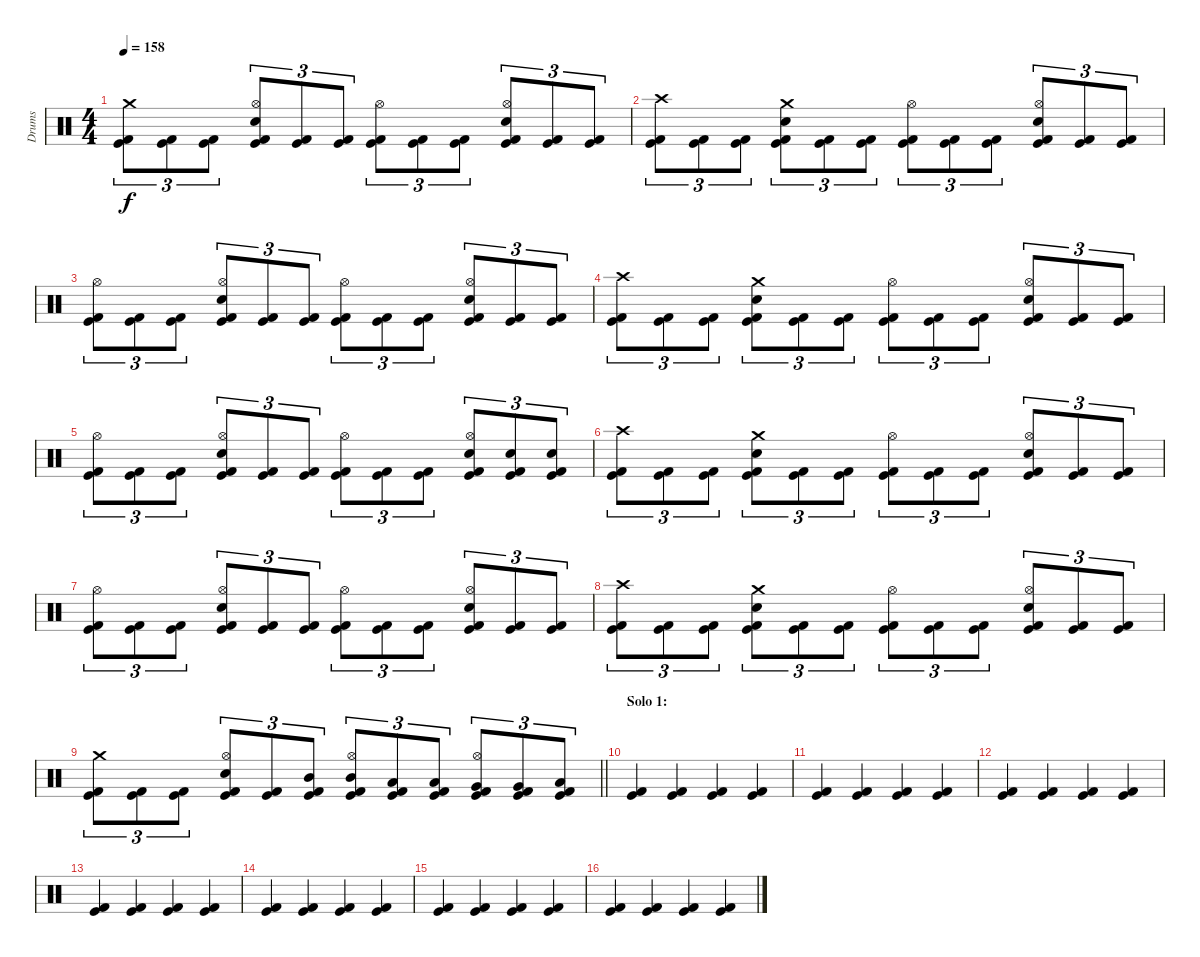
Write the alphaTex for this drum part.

\track ("Drums" "Drums") {instrument percussion}
\staff {score}
\articulation defaults
\ts (4 4)
\tempo 158
\clef neutral
\ks c
("Crash medium (hit)" "Kick (hit)" "Kick (hit) 2").8{tu (3 2) dy f} ("Kick (hit)" "Kick (hit) 2").8{tu (3 2)} ("Kick (hit)" "Kick (hit) 2").8{tu (3 2)} ("Hi-Hat (open)" "Snare (hit) 2" "Kick (hit)" "Kick (hit) 2").8{tu (3 2)} ("Kick (hit)" "Kick (hit) 2").8{tu (3 2)} ("Kick (hit)" "Kick (hit) 2").8{tu (3 2)} ("Hi-Hat (open)" "Kick (hit)" "Kick (hit) 2").8{tu (3 2)} ("Kick (hit)" "Kick (hit) 2").8{tu (3 2)} ("Kick (hit)" "Kick (hit) 2").8{tu (3 2)} ("Hi-Hat (open)" "Snare (hit) 2" "Kick (hit)" "Kick (hit) 2").8{tu (3 2)} ("Kick (hit)" "Kick (hit) 2").8{tu (3 2)} ("Kick (hit)" "Kick (hit) 2").8{tu (3 2)} |
("Crash high (hit)" "Kick (hit)" "Kick (hit) 2").8{tu (3 2)} ("Kick (hit)" "Kick (hit) 2").8{tu (3 2)} ("Kick (hit)" "Kick (hit) 2").8{tu (3 2)} ("Crash medium (hit)" "Snare (hit) 2" "Kick (hit)" "Kick (hit) 2").8{tu (3 2)} ("Kick (hit)" "Kick (hit) 2").8{tu (3 2)} ("Kick (hit)" "Kick (hit) 2").8{tu (3 2)} ("Hi-Hat (open)" "Kick (hit)" "Kick (hit) 2").8{tu (3 2)} ("Kick (hit)" "Kick (hit) 2").8{tu (3 2)} ("Kick (hit)" "Kick (hit) 2").8{tu (3 2)} ("Hi-Hat (open)" "Snare (hit) 2" "Kick (hit)" "Kick (hit) 2").8{tu (3 2)} ("Kick (hit)" "Kick (hit) 2").8{tu (3 2)} ("Kick (hit)" "Kick (hit) 2").8{tu (3 2)} |
("Hi-Hat (open)" "Kick (hit)" "Kick (hit) 2").8{tu (3 2)} ("Kick (hit)" "Kick (hit) 2").8{tu (3 2)} ("Kick (hit)" "Kick (hit) 2").8{tu (3 2)} ("Hi-Hat (open)" "Snare (hit) 2" "Kick (hit)" "Kick (hit) 2").8{tu (3 2)} ("Kick (hit)" "Kick (hit) 2").8{tu (3 2)} ("Kick (hit)" "Kick (hit) 2").8{tu (3 2)} ("Hi-Hat (open)" "Kick (hit)" "Kick (hit) 2").8{tu (3 2)} ("Kick (hit)" "Kick (hit) 2").8{tu (3 2)} ("Kick (hit)" "Kick (hit) 2").8{tu (3 2)} ("Hi-Hat (open)" "Snare (hit) 2" "Kick (hit)" "Kick (hit) 2").8{tu (3 2)} ("Kick (hit)" "Kick (hit) 2").8{tu (3 2)} ("Kick (hit)" "Kick (hit) 2").8{tu (3 2)} |
("Crash high (hit)" "Kick (hit)" "Kick (hit) 2").8{tu (3 2)} ("Kick (hit)" "Kick (hit) 2").8{tu (3 2)} ("Kick (hit)" "Kick (hit) 2").8{tu (3 2)} ("Crash medium (hit)" "Snare (hit) 2" "Kick (hit)" "Kick (hit) 2").8{tu (3 2)} ("Kick (hit)" "Kick (hit) 2").8{tu (3 2)} ("Kick (hit)" "Kick (hit) 2").8{tu (3 2)} ("Hi-Hat (open)" "Kick (hit)" "Kick (hit) 2").8{tu (3 2)} ("Kick (hit)" "Kick (hit) 2").8{tu (3 2)} ("Kick (hit)" "Kick (hit) 2").8{tu (3 2)} ("Hi-Hat (open)" "Snare (hit) 2" "Kick (hit)" "Kick (hit) 2").8{tu (3 2)} ("Kick (hit)" "Kick (hit) 2").8{tu (3 2)} ("Kick (hit)" "Kick (hit) 2").8{tu (3 2)} |
("Hi-Hat (open)" "Kick (hit)" "Kick (hit) 2").8{tu (3 2)} ("Kick (hit)" "Kick (hit) 2").8{tu (3 2)} ("Kick (hit)" "Kick (hit) 2").8{tu (3 2)} ("Hi-Hat (open)" "Snare (hit) 2" "Kick (hit)" "Kick (hit) 2").8{tu (3 2)} ("Kick (hit)" "Kick (hit) 2").8{tu (3 2)} ("Kick (hit)" "Kick (hit) 2").8{tu (3 2)} ("Hi-Hat (open)" "Kick (hit)" "Kick (hit) 2").8{tu (3 2)} ("Kick (hit)" "Kick (hit) 2").8{tu (3 2)} ("Kick (hit)" "Kick (hit) 2").8{tu (3 2)} ("Hi-Hat (open)" "Snare (hit) 2" "Kick (hit)" "Kick (hit) 2").8{tu (3 2)} ("Snare (hit) 2" "Kick (hit)" "Kick (hit) 2").8{tu (3 2)} ("Snare (hit) 2" "Kick (hit)" "Kick (hit) 2").8{tu (3 2)} |
("Crash high (hit)" "Kick (hit)" "Kick (hit) 2").8{tu (3 2)} ("Kick (hit)" "Kick (hit) 2").8{tu (3 2)} ("Kick (hit)" "Kick (hit) 2").8{tu (3 2)} ("Crash medium (hit)" "Snare (hit) 2" "Kick (hit)" "Kick (hit) 2").8{tu (3 2)} ("Kick (hit)" "Kick (hit) 2").8{tu (3 2)} ("Kick (hit)" "Kick (hit) 2").8{tu (3 2)} ("Hi-Hat (open)" "Kick (hit)" "Kick (hit) 2").8{tu (3 2)} ("Kick (hit)" "Kick (hit) 2").8{tu (3 2)} ("Kick (hit)" "Kick (hit) 2").8{tu (3 2)} ("Hi-Hat (open)" "Snare (hit) 2" "Kick (hit)" "Kick (hit) 2").8{tu (3 2)} ("Kick (hit)" "Kick (hit) 2").8{tu (3 2)} ("Kick (hit)" "Kick (hit) 2").8{tu (3 2)} |
("Hi-Hat (open)" "Kick (hit)" "Kick (hit) 2").8{tu (3 2)} ("Kick (hit)" "Kick (hit) 2").8{tu (3 2)} ("Kick (hit)" "Kick (hit) 2").8{tu (3 2)} ("Hi-Hat (open)" "Snare (hit) 2" "Kick (hit)" "Kick (hit) 2").8{tu (3 2)} ("Kick (hit)" "Kick (hit) 2").8{tu (3 2)} ("Kick (hit)" "Kick (hit) 2").8{tu (3 2)} ("Hi-Hat (open)" "Kick (hit)" "Kick (hit) 2").8{tu (3 2)} ("Kick (hit)" "Kick (hit) 2").8{tu (3 2)} ("Kick (hit)" "Kick (hit) 2").8{tu (3 2)} ("Hi-Hat (open)" "Snare (hit) 2" "Kick (hit)" "Kick (hit) 2").8{tu (3 2)} ("Kick (hit)" "Kick (hit) 2").8{tu (3 2)} ("Kick (hit)" "Kick (hit) 2").8{tu (3 2)} |
("Crash high (hit)" "Kick (hit)" "Kick (hit) 2").8{tu (3 2)} ("Kick (hit)" "Kick (hit) 2").8{tu (3 2)} ("Kick (hit)" "Kick (hit) 2").8{tu (3 2)} ("Crash medium (hit)" "Snare (hit) 2" "Kick (hit)" "Kick (hit) 2").8{tu (3 2)} ("Kick (hit)" "Kick (hit) 2").8{tu (3 2)} ("Kick (hit)" "Kick (hit) 2").8{tu (3 2)} ("Hi-Hat (open)" "Kick (hit)" "Kick (hit) 2").8{tu (3 2)} ("Kick (hit)" "Kick (hit) 2").8{tu (3 2)} ("Kick (hit)" "Kick (hit) 2").8{tu (3 2)} ("Hi-Hat (open)" "Snare (hit) 2" "Kick (hit)" "Kick (hit) 2").8{tu (3 2)} ("Kick (hit)" "Kick (hit) 2").8{tu (3 2)} ("Kick (hit)" "Kick (hit) 2").8{tu (3 2)} |
\barLineRight lightlight
("Crash medium (hit)" "Kick (hit)" "Kick (hit) 2").8{tu (3 2)} ("Kick (hit)" "Kick (hit) 2").8{tu (3 2)} ("Kick (hit)" "Kick (hit) 2").8{tu (3 2)} ("Hi-Hat (open)" "Snare (hit) 2" "Kick (hit)" "Kick (hit) 2").8{tu (3 2)} ("Kick (hit)" "Kick (hit) 2").8{tu (3 2)} ("Mid Tom (hit)" "Kick (hit)" "Kick (hit) 2").8{tu (3 2)} ("Hi-Hat (open)" "Mid Tom (hit)" "Kick (hit)" "Kick (hit) 2").8{tu (3 2)} ("Low Tom (hit)" "Kick (hit)" "Kick (hit) 2").8{tu (3 2)} ("Low Tom (hit)" "Kick (hit)" "Kick (hit) 2").8{tu (3 2)} ("Hi-Hat (open)" "Very Low Tom (hit)" "Kick (hit)" "Kick (hit) 2").8{tu (3 2)} ("Very Low Tom (hit)" "Kick (hit)" "Kick (hit) 2").8{tu (3 2)} ("Low Floor Tom (hit)" "Kick (hit)" "Kick (hit) 2").8{tu (3 2)} |
\section ("" "Solo 1:")
("Kick (hit)" "Kick (hit) 2").4 ("Kick (hit)" "Kick (hit) 2").4 ("Kick (hit)" "Kick (hit) 2").4 ("Kick (hit)" "Kick (hit) 2").4 |
("Kick (hit)" "Kick (hit) 2").4 ("Kick (hit)" "Kick (hit) 2").4 ("Kick (hit)" "Kick (hit) 2").4 ("Kick (hit)" "Kick (hit) 2").4 |
("Kick (hit)" "Kick (hit) 2").4 ("Kick (hit)" "Kick (hit) 2").4 ("Kick (hit)" "Kick (hit) 2").4 ("Kick (hit)" "Kick (hit) 2").4 |
("Kick (hit)" "Kick (hit) 2").4 ("Kick (hit)" "Kick (hit) 2").4 ("Kick (hit)" "Kick (hit) 2").4 ("Kick (hit)" "Kick (hit) 2").4 |
("Kick (hit)" "Kick (hit) 2").4 ("Kick (hit)" "Kick (hit) 2").4 ("Kick (hit)" "Kick (hit) 2").4 ("Kick (hit)" "Kick (hit) 2").4 |
("Kick (hit)" "Kick (hit) 2").4 ("Kick (hit)" "Kick (hit) 2").4 ("Kick (hit)" "Kick (hit) 2").4 ("Kick (hit)" "Kick (hit) 2").4 |
("Kick (hit)" "Kick (hit) 2").4 ("Kick (hit)" "Kick (hit) 2").4 ("Kick (hit)" "Kick (hit) 2").4 ("Kick (hit)" "Kick (hit) 2").4
